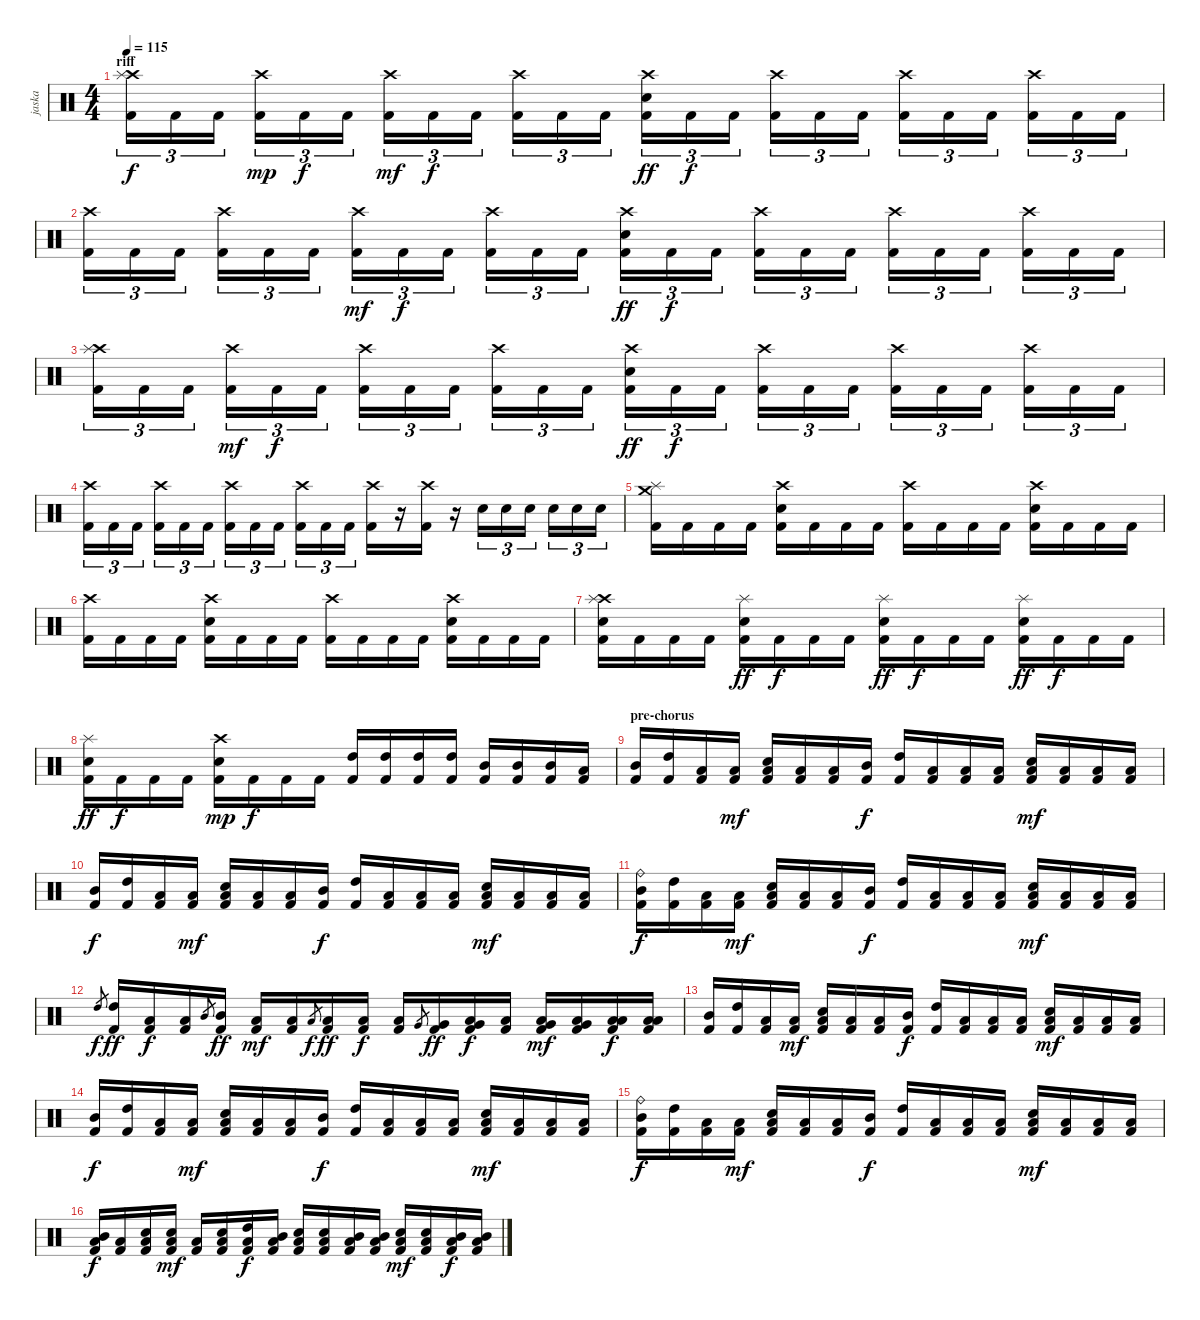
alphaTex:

\track ("jaska" "jaska") {instrument percussion}
\staff {score}
\articulation defaults
\ts (4 4)
\section ("" "riff")
\tempo 115
\clef neutral
\ks c
("Crash high (hit)" "Splash (hit)" "Kick (hit) 2").16{tu (3 2) dy f} "Kick (hit) 2".16{tu (3 2)} "Kick (hit) 2".16{tu (3 2)} ("Crash high (hit)" "Kick (hit) 2").16{tu (3 2) dy mp} "Kick (hit) 2".16{tu (3 2) dy f} "Kick (hit) 2".16{tu (3 2)} ("Crash high (hit)" "Kick (hit) 2").16{tu (3 2) dy mf} "Kick (hit) 2".16{tu (3 2) dy f} "Kick (hit) 2".16{tu (3 2)} ("Crash high (hit)" "Kick (hit) 2").16{tu (3 2)} "Kick (hit) 2".16{tu (3 2)} "Kick (hit) 2".16{tu (3 2)} ("Crash high (hit)" "Electric Snare (hit)" "Kick (hit) 2").16{tu (3 2) dy ff} "Kick (hit) 2".16{tu (3 2) dy f} "Kick (hit) 2".16{tu (3 2)} ("Crash high (hit)" "Kick (hit) 2").16{tu (3 2)} "Kick (hit) 2".16{tu (3 2)} "Kick (hit) 2".16{tu (3 2)} ("Crash high (hit)" "Kick (hit) 2").16{tu (3 2)} "Kick (hit) 2".16{tu (3 2)} "Kick (hit) 2".16{tu (3 2)} ("Crash high (hit)" "Kick (hit) 2").16{tu (3 2)} "Kick (hit) 2".16{tu (3 2)} "Kick (hit) 2".16{tu (3 2)} |
("Crash high (hit)" "Kick (hit) 2").16{tu (3 2)} "Kick (hit) 2".16{tu (3 2)} "Kick (hit) 2".16{tu (3 2)} ("Crash high (hit)" "Kick (hit) 2").16{tu (3 2)} "Kick (hit) 2".16{tu (3 2)} "Kick (hit) 2".16{tu (3 2)} ("Crash high (hit)" "Kick (hit) 2").16{tu (3 2) dy mf} "Kick (hit) 2".16{tu (3 2) dy f} "Kick (hit) 2".16{tu (3 2)} ("Crash high (hit)" "Kick (hit) 2").16{tu (3 2)} "Kick (hit) 2".16{tu (3 2)} "Kick (hit) 2".16{tu (3 2)} ("Crash high (hit)" "Electric Snare (hit)" "Kick (hit) 2").16{tu (3 2) dy ff} "Kick (hit) 2".16{tu (3 2) dy f} "Kick (hit) 2".16{tu (3 2)} ("Crash high (hit)" "Kick (hit) 2").16{tu (3 2)} "Kick (hit) 2".16{tu (3 2)} "Kick (hit) 2".16{tu (3 2)} ("Crash high (hit)" "Kick (hit) 2").16{tu (3 2)} "Kick (hit) 2".16{tu (3 2)} "Kick (hit) 2".16{tu (3 2)} ("Crash high (hit)" "Kick (hit) 2").16{tu (3 2)} "Kick (hit) 2".16{tu (3 2)} "Kick (hit) 2".16{tu (3 2)} |
("Crash high (hit)" "Splash (hit)" "Kick (hit) 2").16{tu (3 2)} "Kick (hit) 2".16{tu (3 2)} "Kick (hit) 2".16{tu (3 2)} ("Crash high (hit)" "Kick (hit) 2").16{tu (3 2) dy mf} "Kick (hit) 2".16{tu (3 2) dy f} "Kick (hit) 2".16{tu (3 2)} ("Crash high (hit)" "Kick (hit) 2").16{tu (3 2)} "Kick (hit) 2".16{tu (3 2)} "Kick (hit) 2".16{tu (3 2)} ("Crash high (hit)" "Kick (hit) 2").16{tu (3 2)} "Kick (hit) 2".16{tu (3 2)} "Kick (hit) 2".16{tu (3 2)} ("Crash high (hit)" "Electric Snare (hit)" "Kick (hit) 2").16{tu (3 2) dy ff} "Kick (hit) 2".16{tu (3 2) dy f} "Kick (hit) 2".16{tu (3 2)} ("Crash high (hit)" "Kick (hit) 2").16{tu (3 2)} "Kick (hit) 2".16{tu (3 2)} "Kick (hit) 2".16{tu (3 2)} ("Crash high (hit)" "Kick (hit) 2").16{tu (3 2)} "Kick (hit) 2".16{tu (3 2)} "Kick (hit) 2".16{tu (3 2)} ("Crash high (hit)" "Kick (hit) 2").16{tu (3 2)} "Kick (hit) 2".16{tu (3 2)} "Kick (hit) 2".16{tu (3 2)} |
("Crash high (hit)" "Kick (hit) 2").16{tu (3 2)} "Kick (hit) 2".16{tu (3 2)} "Kick (hit) 2".16{tu (3 2)} ("Crash high (hit)" "Kick (hit) 2").16{tu (3 2)} "Kick (hit) 2".16{tu (3 2)} "Kick (hit) 2".16{tu (3 2)} ("Crash high (hit)" "Kick (hit) 2").16{tu (3 2)} "Kick (hit) 2".16{tu (3 2)} "Kick (hit) 2".16{tu (3 2)} ("Crash high (hit)" "Kick (hit) 2").16{tu (3 2)} "Kick (hit) 2".16{tu (3 2)} "Kick (hit) 2".16{tu (3 2)} ("Crash high (hit)"{pm} "Kick (hit) 2").16 r.16 ("Crash high (hit)"{pm} "Kick (hit) 2").16 r.16 "Electric Snare (hit)".16{tu (3 2)} "Electric Snare (hit)".16{tu (3 2)} "Electric Snare (hit)".16{tu (3 2)} "Electric Snare (hit)".16{tu (3 2)} "Electric Snare (hit)".16{tu (3 2)} "Electric Snare (hit)".16{tu (3 2)} |
("Crash medium (hit)" "Splash (hit)" "Kick (hit) 2").16 "Kick (hit) 2".16 "Kick (hit) 2".16 "Kick (hit) 2".16 ("Crash high (hit)" "Electric Snare (hit)" "Kick (hit) 2").16 "Kick (hit) 2".16 "Kick (hit) 2".16 "Kick (hit) 2".16 ("Crash high (hit)" "Kick (hit) 2").16 "Kick (hit) 2".16 "Kick (hit) 2".16 "Kick (hit) 2".16 ("Crash high (hit)" "Electric Snare (hit)" "Kick (hit) 2").16 "Kick (hit) 2".16 "Kick (hit) 2".16 "Kick (hit) 2".16 |
("Crash high (hit)" "Kick (hit) 2").16 "Kick (hit) 2".16 "Kick (hit) 2".16 "Kick (hit) 2".16 ("Crash high (hit)" "Electric Snare (hit)" "Kick (hit) 2").16 "Kick (hit) 2".16 "Kick (hit) 2".16 "Kick (hit) 2".16 ("Crash high (hit)" "Kick (hit) 2").16 "Kick (hit) 2".16 "Kick (hit) 2".16 "Kick (hit) 2".16 ("Crash high (hit)" "Electric Snare (hit)" "Kick (hit) 2").16 "Kick (hit) 2".16 "Kick (hit) 2".16 "Kick (hit) 2".16 |
("Crash high (hit)" "Splash (hit)" "Electric Snare (hit)" "Kick (hit) 2").16 "Kick (hit) 2".16 "Kick (hit) 2".16 "Kick (hit) 2".16 ("Splash (hit)" "Electric Snare (hit)" "Kick (hit) 2").16{dy ff} "Kick (hit) 2".16{dy f} "Kick (hit) 2".16 "Kick (hit) 2".16 ("Splash (hit)" "Electric Snare (hit)" "Kick (hit) 2").16{dy ff} "Kick (hit) 2".16{dy f} "Kick (hit) 2".16 "Kick (hit) 2".16 ("Splash (hit)" "Electric Snare (hit)" "Kick (hit) 2").16{dy ff} "Kick (hit) 2".16{dy f} "Kick (hit) 2".16 "Kick (hit) 2".16 |
("Splash (hit)" "Electric Snare (hit)" "Kick (hit) 2").16{dy ff} "Kick (hit) 2".16{dy f} "Kick (hit) 2".16 "Kick (hit) 2".16 ("Crash high (hit)" "Electric Snare (hit)" "Kick (hit) 2").16{dy mp} "Kick (hit) 2".16{dy f} "Kick (hit) 2".16 "Kick (hit) 2".16 ("High Tom (hit)" "Kick (hit) 2").16 ("High Tom (hit)" "Kick (hit) 2").16 ("High Tom (hit)" "Kick (hit) 2").16 ("High Tom (hit)" "Kick (hit) 2").16 ("Mid Tom (hit)" "Kick (hit) 2").16 ("Mid Tom (hit)" "Kick (hit) 2").16 ("Mid Tom (hit)" "Kick (hit) 2").16 ("Low Tom (hit)" "Kick (hit) 2").16 |
\section ("" "pre-chorus")
("Mid Tom (hit)" "Kick (hit) 2").16 ("High Tom (hit)" "Kick (hit) 2").16 ("Low Tom (hit)" "Kick (hit) 2").16 ("Low Tom (hit)" "Kick (hit) 2").16{dy mf} ("Electric Snare (hit)" "Low Tom (hit)" "Kick (hit) 2").16 ("Low Tom (hit)" "Kick (hit) 2").16 ("Low Tom (hit)" "Kick (hit) 2").16 ("Mid Tom (hit)" "Kick (hit) 2").16{dy f} ("High Tom (hit)" "Kick (hit) 2").16 ("Low Tom (hit)" "Kick (hit) 2").16 ("Low Tom (hit)" "Kick (hit) 2").16 ("Low Tom (hit)" "Kick (hit) 2").16 ("Electric Snare (hit)" "Low Tom (hit)" "Kick (hit) 2").16{dy mf} ("Low Tom (hit)" "Kick (hit) 2").16 ("Low Tom (hit)" "Kick (hit) 2").16 ("Low Tom (hit)" "Kick (hit) 2").16 |
("Mid Tom (hit)" "Kick (hit) 2").16{dy f} ("High Tom (hit)" "Kick (hit) 2").16 ("Low Tom (hit)" "Kick (hit) 2").16 ("Low Tom (hit)" "Kick (hit) 2").16{dy mf} ("Electric Snare (hit)" "Low Tom (hit)" "Kick (hit) 2").16 ("Low Tom (hit)" "Kick (hit) 2").16 ("Low Tom (hit)" "Kick (hit) 2").16 ("Mid Tom (hit)" "Kick (hit) 2").16{dy f} ("High Tom (hit)" "Kick (hit) 2").16 ("Low Tom (hit)" "Kick (hit) 2").16 ("Low Tom (hit)" "Kick (hit) 2").16 ("Low Tom (hit)" "Kick (hit) 2").16 ("Electric Snare (hit)" "Low Tom (hit)" "Kick (hit) 2").16{dy mf} ("Low Tom (hit)" "Kick (hit) 2").16 ("Low Tom (hit)" "Kick (hit) 2").16 ("Low Tom (hit)" "Kick (hit) 2").16 |
("Ride (bell)" "Mid Tom (hit)" "Kick (hit) 2").16{dy f} ("High Tom (hit)" "Kick (hit) 2").16 ("Low Tom (hit)" "Kick (hit) 2").16 ("Low Tom (hit)" "Kick (hit) 2").16{dy mf} ("Electric Snare (hit)" "Low Tom (hit)" "Kick (hit) 2").16 ("Low Tom (hit)" "Kick (hit) 2").16 ("Low Tom (hit)" "Kick (hit) 2").16 ("Mid Tom (hit)" "Kick (hit) 2").16{dy f} ("High Tom (hit)" "Kick (hit) 2").16 ("Low Tom (hit)" "Kick (hit) 2").16 ("Low Tom (hit)" "Kick (hit) 2").16 ("Low Tom (hit)" "Kick (hit) 2").16 ("Electric Snare (hit)" "Low Tom (hit)" "Kick (hit) 2").16{dy mf} ("Low Tom (hit)" "Kick (hit) 2").16 ("Low Tom (hit)" "Kick (hit) 2").16 ("Low Tom (hit)" "Kick (hit) 2").16 |
"High Tom (hit)".8{gr dy f} ("High Tom (hit)" "Kick (hit) 2").16{dy ff} ("Low Tom (hit)" "Kick (hit) 2").16{dy f} ("Low Tom (hit)" "Kick (hit) 2").16 "Mid Tom (hit)".8{gr} ("Mid Tom (hit)" "Kick (hit) 2").16{dy ff} ("Low Tom (hit)" "Kick (hit) 2").16{dy mf} ("Low Tom (hit)" "Kick (hit) 2").16 "Low Tom (hit)".8{gr dy f} ("Low Tom (hit)" "Kick (hit) 2").16{dy ff} ("Low Tom (hit)" "Kick (hit) 2").16{dy f} ("Low Tom (hit)" "Kick (hit) 2").16 "Very Low Tom (hit)".8{gr} ("Very Low Tom (hit)" "Kick (hit) 2").16{dy ff} ("Very Low Tom (hit)" "Low Tom (hit)" "Kick (hit) 2").16{dy f} ("Low Tom (hit)" "Kick (hit) 2").16 ("Very Low Tom (hit)" "Low Tom (hit)" "Kick (hit) 2").16{dy mf} ("Very Low Tom (hit)" "Low Tom (hit)" "Kick (hit) 2").16 ("Low Floor Tom (hit)" "Low Tom (hit)" "Kick (hit) 2").16{dy f} ("Low Floor Tom (hit)" "Low Tom (hit)" "Kick (hit) 2").16 |
("Mid Tom (hit)" "Kick (hit) 2").16 ("High Tom (hit)" "Kick (hit) 2").16 ("Low Tom (hit)" "Kick (hit) 2").16 ("Low Tom (hit)" "Kick (hit) 2").16{dy mf} ("Electric Snare (hit)" "Low Tom (hit)" "Kick (hit) 2").16 ("Low Tom (hit)" "Kick (hit) 2").16 ("Low Tom (hit)" "Kick (hit) 2").16 ("Mid Tom (hit)" "Kick (hit) 2").16{dy f} ("High Tom (hit)" "Kick (hit) 2").16 ("Low Tom (hit)" "Kick (hit) 2").16 ("Low Tom (hit)" "Kick (hit) 2").16 ("Low Tom (hit)" "Kick (hit) 2").16 ("Electric Snare (hit)" "Low Tom (hit)" "Kick (hit) 2").16{dy mf} ("Low Tom (hit)" "Kick (hit) 2").16 ("Low Tom (hit)" "Kick (hit) 2").16 ("Low Tom (hit)" "Kick (hit) 2").16 |
("Mid Tom (hit)" "Kick (hit) 2").16{dy f} ("High Tom (hit)" "Kick (hit) 2").16 ("Low Tom (hit)" "Kick (hit) 2").16 ("Low Tom (hit)" "Kick (hit) 2").16{dy mf} ("Electric Snare (hit)" "Low Tom (hit)" "Kick (hit) 2").16 ("Low Tom (hit)" "Kick (hit) 2").16 ("Low Tom (hit)" "Kick (hit) 2").16 ("Mid Tom (hit)" "Kick (hit) 2").16{dy f} ("High Tom (hit)" "Kick (hit) 2").16 ("Low Tom (hit)" "Kick (hit) 2").16 ("Low Tom (hit)" "Kick (hit) 2").16 ("Low Tom (hit)" "Kick (hit) 2").16 ("Electric Snare (hit)" "Low Tom (hit)" "Kick (hit) 2").16{dy mf} ("Low Tom (hit)" "Kick (hit) 2").16 ("Low Tom (hit)" "Kick (hit) 2").16 ("Low Tom (hit)" "Kick (hit) 2").16 |
("Ride (bell)" "Mid Tom (hit)" "Kick (hit) 2").16{dy f} ("High Tom (hit)" "Kick (hit) 2").16 ("Low Tom (hit)" "Kick (hit) 2").16 ("Low Tom (hit)" "Kick (hit) 2").16{dy mf} ("Electric Snare (hit)" "Low Tom (hit)" "Kick (hit) 2").16 ("Low Tom (hit)" "Kick (hit) 2").16 ("Low Tom (hit)" "Kick (hit) 2").16 ("Mid Tom (hit)" "Kick (hit) 2").16{dy f} ("High Tom (hit)" "Kick (hit) 2").16 ("Low Tom (hit)" "Kick (hit) 2").16 ("Low Tom (hit)" "Kick (hit) 2").16 ("Low Tom (hit)" "Kick (hit) 2").16 ("Electric Snare (hit)" "Low Tom (hit)" "Kick (hit) 2").16{dy mf} ("Low Tom (hit)" "Kick (hit) 2").16 ("Low Tom (hit)" "Kick (hit) 2").16 ("Low Tom (hit)" "Kick (hit) 2").16 |
("Mid Tom (hit)" "Low Tom (hit)" "Kick (hit) 2").16{dy f} ("Low Tom (hit)" "Kick (hit) 2").16 ("Electric Snare (hit)" "Low Tom (hit)" "Kick (hit) 2").16 ("Electric Snare (hit)" "Low Tom (hit)" "Kick (hit) 2").16{dy mf} ("Low Tom (hit)" "Kick (hit) 2").16 ("Electric Snare (hit)" "Low Tom (hit)" "Kick (hit) 2").16 ("High Tom (hit)" "Low Tom (hit)" "Kick (hit) 2").16{dy f} ("Mid Tom (hit)" "Low Tom (hit)" "Kick (hit) 2").16 ("Electric Snare (hit)" "Low Tom (hit)" "Kick (hit) 2").16 ("Electric Snare (hit)" "Low Tom (hit)" "Kick (hit) 2").16 ("Mid Tom (hit)" "Low Tom (hit)" "Kick (hit) 2").16 ("Mid Tom (hit)" "Low Tom (hit)" "Kick (hit) 2").16 ("Electric Snare (hit)" "Low Tom (hit)" "Kick (hit) 2").16{dy mf} ("Electric Snare (hit)" "Low Tom (hit)" "Kick (hit) 2").16 ("Mid Tom (hit)" "Low Tom (hit)" "Kick (hit) 2").16{dy f} ("Mid Tom (hit)" "Low Tom (hit)" "Kick (hit) 2").16
